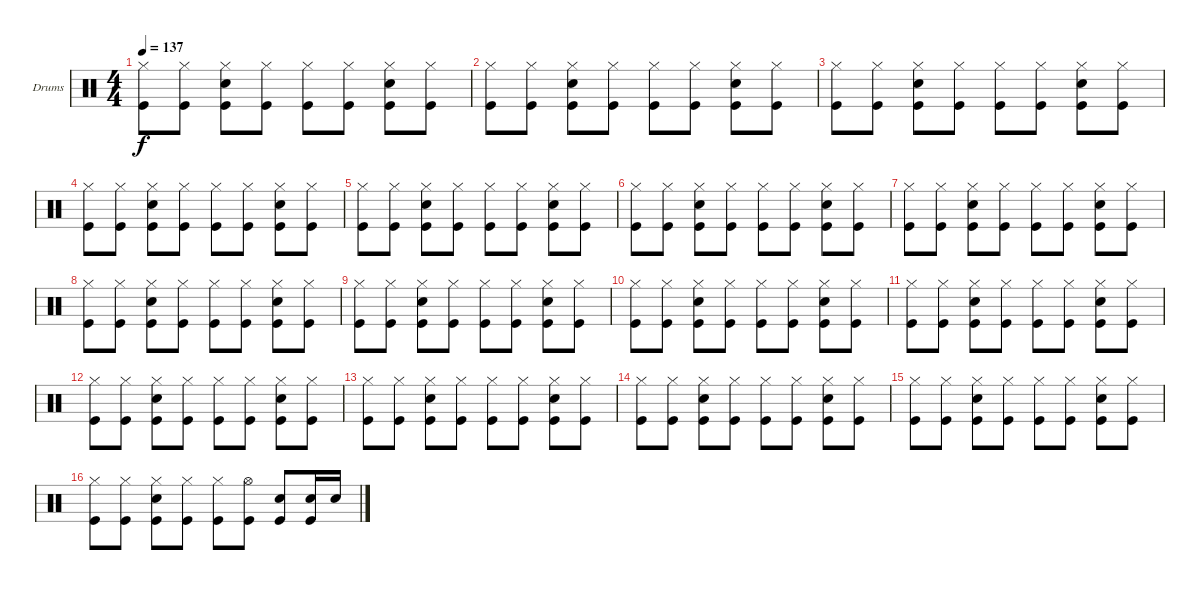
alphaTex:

\bracketExtendMode groupsimilarinstruments
\firstSystemTrackNameOrientation horizontal
\otherSystemsTrackNameOrientation horizontal
\track ("Peter Ulrich (Drums)" "Drums") {instrument percussion}
\staff {score}
\articulation defaults
\ts (4 4)
\tempo 137
\clef neutral
\ks c
("Hi-Hat (closed)" "Kick (hit)").8{dy f} ("Hi-Hat (closed)" "Kick (hit)").8 ("Hi-Hat (closed)" "Snare (hit) 2" "Kick (hit)").8 ("Hi-Hat (closed)" "Kick (hit)").8 ("Hi-Hat (closed)" "Kick (hit)").8 ("Hi-Hat (closed)" "Kick (hit)").8 ("Hi-Hat (closed)" "Snare (hit) 2" "Kick (hit)").8 ("Hi-Hat (closed)" "Kick (hit)").8 |
("Hi-Hat (closed)" "Kick (hit)").8 ("Hi-Hat (closed)" "Kick (hit)").8 ("Hi-Hat (closed)" "Snare (hit) 2" "Kick (hit)").8 ("Hi-Hat (closed)" "Kick (hit)").8 ("Hi-Hat (closed)" "Kick (hit)").8 ("Hi-Hat (closed)" "Kick (hit)").8 ("Hi-Hat (closed)" "Snare (hit) 2" "Kick (hit)").8 ("Hi-Hat (closed)" "Kick (hit)").8 |
("Hi-Hat (closed)" "Kick (hit)").8 ("Hi-Hat (closed)" "Kick (hit)").8 ("Hi-Hat (closed)" "Snare (hit) 2" "Kick (hit)").8 ("Hi-Hat (closed)" "Kick (hit)").8 ("Hi-Hat (closed)" "Kick (hit)").8 ("Hi-Hat (closed)" "Kick (hit)").8 ("Hi-Hat (closed)" "Snare (hit) 2" "Kick (hit)").8 ("Hi-Hat (closed)" "Kick (hit)").8 |
("Hi-Hat (closed)" "Kick (hit)").8 ("Hi-Hat (closed)" "Kick (hit)").8 ("Hi-Hat (closed)" "Snare (hit) 2" "Kick (hit)").8 ("Hi-Hat (closed)" "Kick (hit)").8 ("Hi-Hat (closed)" "Kick (hit)").8 ("Hi-Hat (closed)" "Kick (hit)").8 ("Hi-Hat (closed)" "Snare (hit) 2" "Kick (hit)").8 ("Hi-Hat (closed)" "Kick (hit)").8 |
("Hi-Hat (closed)" "Kick (hit)").8 ("Hi-Hat (closed)" "Kick (hit)").8 ("Hi-Hat (closed)" "Snare (hit) 2" "Kick (hit)").8 ("Hi-Hat (closed)" "Kick (hit)").8 ("Hi-Hat (closed)" "Kick (hit)").8 ("Hi-Hat (closed)" "Kick (hit)").8 ("Hi-Hat (closed)" "Snare (hit) 2" "Kick (hit)").8 ("Hi-Hat (closed)" "Kick (hit)").8 |
("Hi-Hat (closed)" "Kick (hit)").8 ("Hi-Hat (closed)" "Kick (hit)").8 ("Hi-Hat (closed)" "Snare (hit) 2" "Kick (hit)").8 ("Hi-Hat (closed)" "Kick (hit)").8 ("Hi-Hat (closed)" "Kick (hit)").8 ("Hi-Hat (closed)" "Kick (hit)").8 ("Hi-Hat (closed)" "Snare (hit) 2" "Kick (hit)").8 ("Hi-Hat (closed)" "Kick (hit)").8 |
("Hi-Hat (closed)" "Kick (hit)").8 ("Hi-Hat (closed)" "Kick (hit)").8 ("Hi-Hat (closed)" "Snare (hit) 2" "Kick (hit)").8 ("Hi-Hat (closed)" "Kick (hit)").8 ("Hi-Hat (closed)" "Kick (hit)").8 ("Hi-Hat (closed)" "Kick (hit)").8 ("Hi-Hat (closed)" "Snare (hit) 2" "Kick (hit)").8 ("Hi-Hat (closed)" "Kick (hit)").8 |
("Hi-Hat (closed)" "Kick (hit)").8 ("Hi-Hat (closed)" "Kick (hit)").8 ("Hi-Hat (closed)" "Snare (hit) 2" "Kick (hit)").8 ("Hi-Hat (closed)" "Kick (hit)").8 ("Hi-Hat (closed)" "Kick (hit)").8 ("Hi-Hat (closed)" "Kick (hit)").8 ("Hi-Hat (closed)" "Snare (hit) 2" "Kick (hit)").8 ("Hi-Hat (closed)" "Kick (hit)").8 |
("Hi-Hat (closed)" "Kick (hit)").8 ("Hi-Hat (closed)" "Kick (hit)").8 ("Hi-Hat (closed)" "Snare (hit) 2" "Kick (hit)").8 ("Hi-Hat (closed)" "Kick (hit)").8 ("Hi-Hat (closed)" "Kick (hit)").8 ("Hi-Hat (closed)" "Kick (hit)").8 ("Hi-Hat (closed)" "Snare (hit) 2" "Kick (hit)").8 ("Hi-Hat (closed)" "Kick (hit)").8 |
("Hi-Hat (closed)" "Kick (hit)").8 ("Hi-Hat (closed)" "Kick (hit)").8 ("Hi-Hat (closed)" "Snare (hit) 2" "Kick (hit)").8 ("Hi-Hat (closed)" "Kick (hit)").8 ("Hi-Hat (closed)" "Kick (hit)").8 ("Hi-Hat (closed)" "Kick (hit)").8 ("Hi-Hat (closed)" "Snare (hit) 2" "Kick (hit)").8 ("Hi-Hat (closed)" "Kick (hit)").8 |
("Hi-Hat (closed)" "Kick (hit)").8 ("Hi-Hat (closed)" "Kick (hit)").8 ("Hi-Hat (closed)" "Snare (hit) 2" "Kick (hit)").8 ("Hi-Hat (closed)" "Kick (hit)").8 ("Hi-Hat (closed)" "Kick (hit)").8 ("Hi-Hat (closed)" "Kick (hit)").8 ("Hi-Hat (closed)" "Snare (hit) 2" "Kick (hit)").8 ("Hi-Hat (closed)" "Kick (hit)").8 |
("Hi-Hat (closed)" "Kick (hit)").8 ("Hi-Hat (closed)" "Kick (hit)").8 ("Hi-Hat (closed)" "Snare (hit) 2" "Kick (hit)").8 ("Hi-Hat (closed)" "Kick (hit)").8 ("Hi-Hat (closed)" "Kick (hit)").8 ("Hi-Hat (closed)" "Kick (hit)").8 ("Hi-Hat (closed)" "Snare (hit) 2" "Kick (hit)").8 ("Hi-Hat (closed)" "Kick (hit)").8 |
("Hi-Hat (closed)" "Kick (hit)").8 ("Hi-Hat (closed)" "Kick (hit)").8 ("Hi-Hat (closed)" "Snare (hit) 2" "Kick (hit)").8 ("Hi-Hat (closed)" "Kick (hit)").8 ("Hi-Hat (closed)" "Kick (hit)").8 ("Hi-Hat (closed)" "Kick (hit)").8 ("Hi-Hat (closed)" "Snare (hit) 2" "Kick (hit)").8 ("Hi-Hat (closed)" "Kick (hit)").8 |
("Hi-Hat (closed)" "Kick (hit)").8 ("Hi-Hat (closed)" "Kick (hit)").8 ("Hi-Hat (closed)" "Snare (hit) 2" "Kick (hit)").8 ("Hi-Hat (closed)" "Kick (hit)").8 ("Hi-Hat (closed)" "Kick (hit)").8 ("Hi-Hat (closed)" "Kick (hit)").8 ("Hi-Hat (closed)" "Snare (hit) 2" "Kick (hit)").8 ("Hi-Hat (closed)" "Kick (hit)").8 |
("Hi-Hat (closed)" "Kick (hit)").8 ("Hi-Hat (closed)" "Kick (hit)").8 ("Hi-Hat (closed)" "Snare (hit) 2" "Kick (hit)").8 ("Hi-Hat (closed)" "Kick (hit)").8 ("Hi-Hat (closed)" "Kick (hit)").8 ("Hi-Hat (closed)" "Kick (hit)").8 ("Hi-Hat (closed)" "Snare (hit) 2" "Kick (hit)").8 ("Hi-Hat (closed)" "Kick (hit)").8 |
("Hi-Hat (closed)" "Kick (hit)").8 ("Hi-Hat (closed)" "Kick (hit)").8 ("Hi-Hat (closed)" "Snare (hit) 2" "Kick (hit)").8 ("Hi-Hat (closed)" "Kick (hit)").8 ("Hi-Hat (closed)" "Kick (hit)").8 ("Hi-Hat (open)" "Kick (hit)").8 ("Snare (hit) 2" "Kick (hit)").8 ("Snare (hit) 2" "Kick (hit)").16 "Snare (hit) 2".16
